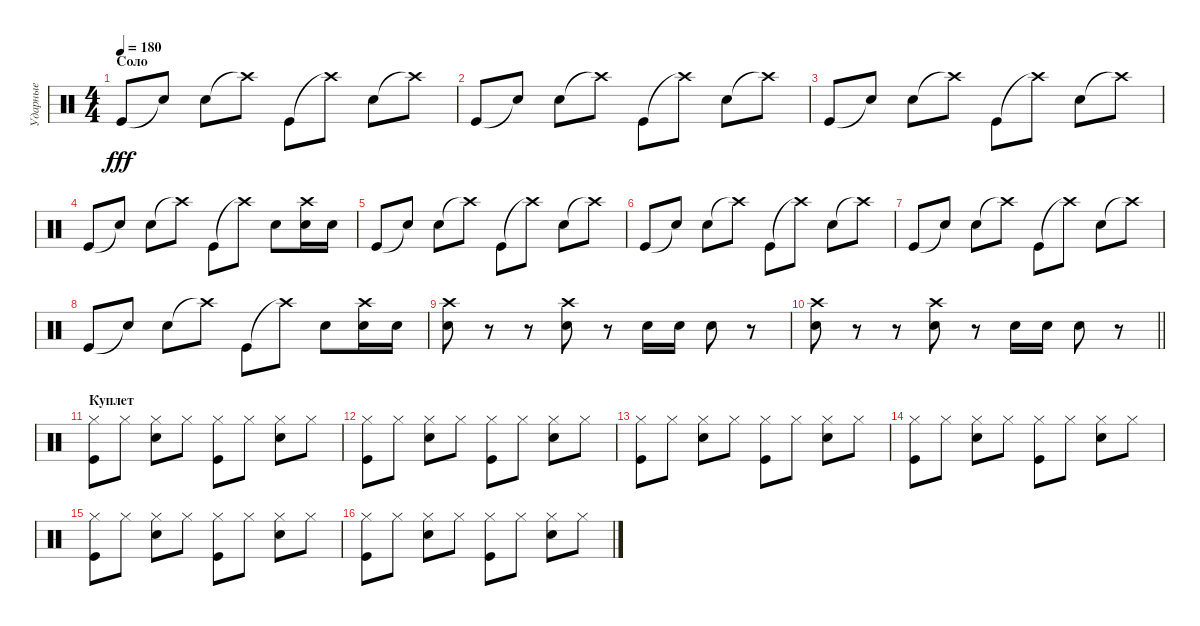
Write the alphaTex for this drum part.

\track ("Ударные" "Ударные") {instrument percussion}
\staff {score}
\articulation defaults
\ts (4 4)
\section ("" "Соло")
\tempo 180
\clef neutral
\ks c "Kick (hit)".8{dy fff} "Snare (hit)"{t}.8 "Electric Snare (hit)".8 "Crash high (hit)"{t}.8 "Kick (hit)".8 "Crash high (hit)"{t}.8 "Electric Snare (hit)".8 "Crash high (hit)"{t}.8
|
"Kick (hit)".8 "Snare (hit)"{t}.8 "Electric Snare (hit)".8 "Crash high (hit)"{t}.8 "Kick (hit)".8 "Crash high (hit)"{t}.8 "Electric Snare (hit)".8 "Crash high (hit)"{t}.8 |
"Kick (hit)".8 "Snare (hit)"{t}.8 "Electric Snare (hit)".8 "Crash high (hit)"{t}.8 "Kick (hit)".8 "Crash high (hit)"{t}.8 "Electric Snare (hit)".8 "Crash high (hit)"{t}.8 |
"Kick (hit)".8 "Snare (hit)"{t}.8 "Electric Snare (hit)".8 "Crash high (hit)"{t}.8 "Kick (hit)".8 "Crash high (hit)"{t}.8 "Electric Snare (hit)".8 ("Electric Snare (hit)" "Crash high (hit)").16 "Electric Snare (hit)".16 |
"Kick (hit)".8 "Snare (hit)"{t}.8 "Electric Snare (hit)".8 "Crash high (hit)"{t}.8 "Kick (hit)".8 "Crash high (hit)"{t}.8 "Electric Snare (hit)".8 "Crash high (hit)"{t}.8 |
"Kick (hit)".8 "Snare (hit)"{t}.8 "Electric Snare (hit)".8 "Crash high (hit)"{t}.8 "Kick (hit)".8 "Crash high (hit)"{t}.8 "Electric Snare (hit)".8 "Crash high (hit)"{t}.8 |
"Kick (hit)".8 "Snare (hit)"{t}.8 "Electric Snare (hit)".8 "Crash high (hit)"{t}.8 "Kick (hit)".8 "Crash high (hit)"{t}.8 "Electric Snare (hit)".8 "Crash high (hit)"{t}.8 |
"Kick (hit)".8 "Snare (hit)"{t}.8 "Electric Snare (hit)".8 "Crash high (hit)"{t}.8 "Kick (hit)".8 "Crash high (hit)"{t}.8 "Electric Snare (hit)".8 ("Electric Snare (hit)" "Crash high (hit)").16 "Electric Snare (hit)".16 |
("Crash high (hit)" "Electric Snare (hit)").8 r.8 r.8 ("Crash high (hit)" "Electric Snare (hit)").8 r.8 "Electric Snare (hit)".16 "Electric Snare (hit)".16 "Electric Snare (hit)".8 r.8 |
\barLineRight lightlight
("Crash high (hit)" "Electric Snare (hit)").8 r.8 r.8 ("Crash high (hit)" "Electric Snare (hit)").8 r.8 "Electric Snare (hit)".16 "Electric Snare (hit)".16 "Electric Snare (hit)".8 r.8 |
\section ("" "Куплет")
("Hi-Hat (closed)" "Kick (hit)").8 "Hi-Hat (closed)".8 ("Hi-Hat (closed)" "Electric Snare (hit)").8 "Hi-Hat (closed)".8 ("Hi-Hat (closed)" "Kick (hit)").8 "Hi-Hat (closed)".8 ("Hi-Hat (closed)" "Electric Snare (hit)").8 "Hi-Hat (closed)".8 |
("Hi-Hat (closed)" "Kick (hit)").8 "Hi-Hat (closed)".8 ("Hi-Hat (closed)" "Electric Snare (hit)").8 "Hi-Hat (closed)".8 ("Hi-Hat (closed)" "Kick (hit)").8 "Hi-Hat (closed)".8 ("Hi-Hat (closed)" "Electric Snare (hit)").8 "Hi-Hat (closed)".8 |
("Hi-Hat (closed)" "Kick (hit)").8 "Hi-Hat (closed)".8 ("Hi-Hat (closed)" "Electric Snare (hit)").8 "Hi-Hat (closed)".8 ("Hi-Hat (closed)" "Kick (hit)").8 "Hi-Hat (closed)".8 ("Hi-Hat (closed)" "Electric Snare (hit)").8 "Hi-Hat (closed)".8 |
("Hi-Hat (closed)" "Kick (hit)").8 "Hi-Hat (closed)".8 ("Hi-Hat (closed)" "Electric Snare (hit)").8 "Hi-Hat (closed)".8 ("Hi-Hat (closed)" "Kick (hit)").8 "Hi-Hat (closed)".8 ("Hi-Hat (closed)" "Electric Snare (hit)").8 "Hi-Hat (closed)".8 |
("Hi-Hat (closed)" "Kick (hit)").8 "Hi-Hat (closed)".8 ("Hi-Hat (closed)" "Electric Snare (hit)").8 "Hi-Hat (closed)".8 ("Hi-Hat (closed)" "Kick (hit)").8 "Hi-Hat (closed)".8 ("Hi-Hat (closed)" "Electric Snare (hit)").8 "Hi-Hat (closed)".8 |
("Hi-Hat (closed)" "Kick (hit)").8 "Hi-Hat (closed)".8 ("Hi-Hat (closed)" "Electric Snare (hit)").8 "Hi-Hat (closed)".8 ("Hi-Hat (closed)" "Kick (hit)").8 "Hi-Hat (closed)".8 ("Hi-Hat (closed)" "Electric Snare (hit)").8 "Hi-Hat (closed)".8
